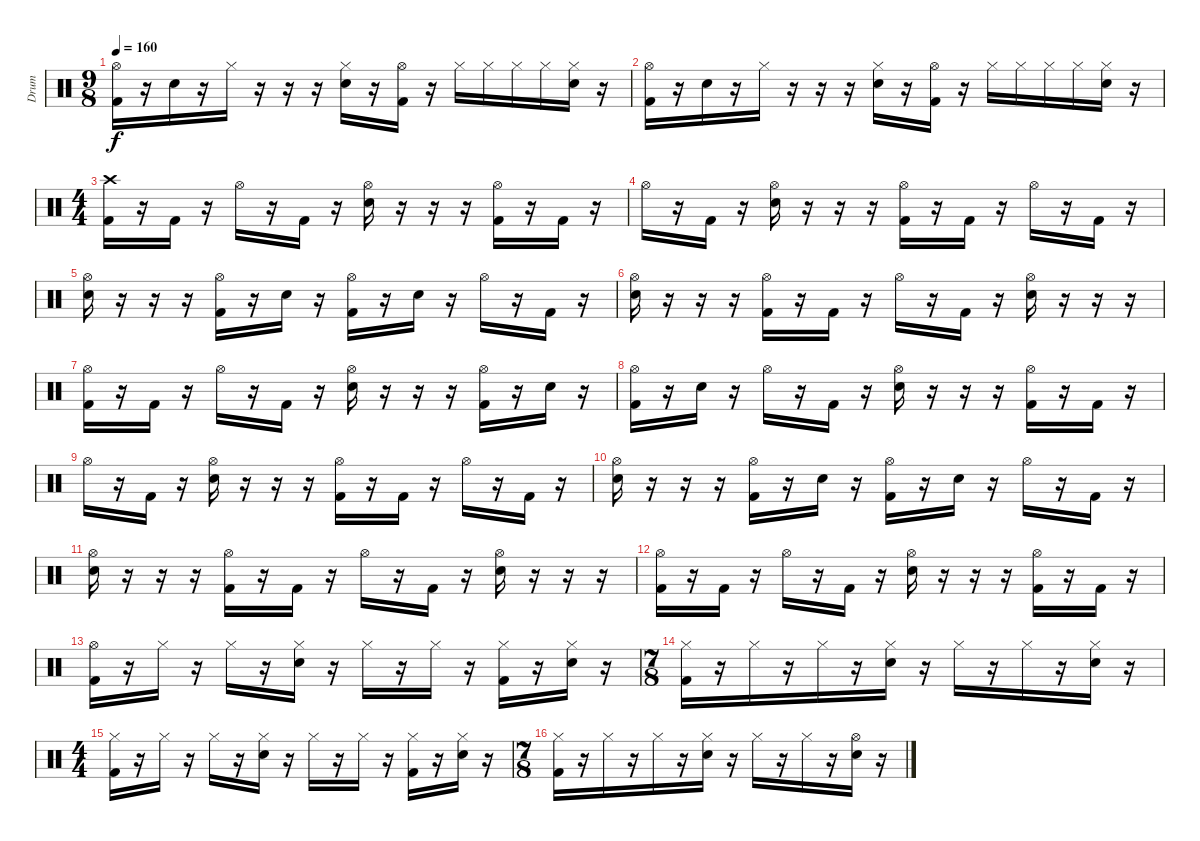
\track ("Drum" "Drum") {instrument percussion}
\staff {score}
\articulation defaults
\ts (9 8)
\tempo 160
\clef neutral
\ks c
("Hi-Hat (open)" "Kick (hit) 2").16{dy f} r.16 "Snare (hit) 2".16 r.16 "Hi-Hat (closed)".16 r.16 r.16 r.16 ("Hi-Hat (closed)" "Snare (hit) 2").16 r.16 ("Hi-Hat (open)" "Kick (hit) 2").16 r.16 "Hi-Hat (closed)".16 "Hi-Hat (closed)".16 "Hi-Hat (closed)".16 "Hi-Hat (closed)".16 ("Hi-Hat (closed)" "Snare (hit) 2").16 r.16 |
("Hi-Hat (open)" "Kick (hit) 2").16 r.16 "Snare (hit) 2".16 r.16 "Hi-Hat (closed)".16 r.16 r.16 r.16 ("Hi-Hat (closed)" "Snare (hit) 2").16 r.16 ("Hi-Hat (open)" "Kick (hit) 2").16 r.16 "Hi-Hat (closed)".16 "Hi-Hat (closed)".16 "Hi-Hat (closed)".16 "Hi-Hat (closed)".16 ("Hi-Hat (closed)" "Snare (hit) 2").16 r.16 |
\ts (4 4)
("Crash high (hit)" "Kick (hit) 2").16 r.16 "Kick (hit) 2".16 r.16 "Hi-Hat (open)".16 r.16 "Kick (hit) 2".16 r.16 ("Hi-Hat (open)" "Snare (hit) 2").16 r.16 r.16 r.16 ("Hi-Hat (open)" "Kick (hit) 2").16 r.16 "Kick (hit) 2".16 r.16 |
"Hi-Hat (open)".16 r.16 "Kick (hit) 2".16 r.16 ("Hi-Hat (open)" "Snare (hit) 2").16 r.16 r.16 r.16 ("Hi-Hat (open)" "Kick (hit) 2").16 r.16 "Kick (hit) 2".16 r.16 "Hi-Hat (open)".16 r.16 "Kick (hit) 2".16 r.16 |
("Hi-Hat (open)" "Snare (hit) 2").16 r.16 r.16 r.16 ("Hi-Hat (open)" "Kick (hit) 2").16 r.16 "Snare (hit) 2".16 r.16 ("Hi-Hat (open)" "Kick (hit) 2").16 r.16 "Snare (hit) 2".16 r.16 "Hi-Hat (open)".16 r.16 "Kick (hit) 2".16 r.16 |
("Hi-Hat (open)" "Snare (hit) 2").16 r.16 r.16 r.16 ("Hi-Hat (open)" "Kick (hit) 2").16 r.16 "Kick (hit) 2".16 r.16 "Hi-Hat (open)".16 r.16 "Kick (hit) 2".16 r.16 ("Hi-Hat (open)" "Snare (hit) 2").16 r.16 r.16 r.16 |
("Hi-Hat (open)" "Kick (hit) 2").16 r.16 "Kick (hit) 2".16 r.16 "Hi-Hat (open)".16 r.16 "Kick (hit) 2".16 r.16 ("Hi-Hat (open)" "Snare (hit) 2").16 r.16 r.16 r.16 ("Hi-Hat (open)" "Kick (hit) 2").16 r.16 "Snare (hit) 2".16 r.16 |
("Hi-Hat (open)" "Kick (hit) 2").16 r.16 "Snare (hit) 2".16 r.16 "Hi-Hat (open)".16 r.16 "Kick (hit) 2".16 r.16 ("Hi-Hat (open)" "Snare (hit) 2").16 r.16 r.16 r.16 ("Hi-Hat (open)" "Kick (hit) 2").16 r.16 "Kick (hit) 2".16 r.16 |
"Hi-Hat (open)".16 r.16 "Kick (hit) 2".16 r.16 ("Hi-Hat (open)" "Snare (hit) 2").16 r.16 r.16 r.16 ("Hi-Hat (open)" "Kick (hit) 2").16 r.16 "Kick (hit) 2".16 r.16 "Hi-Hat (open)".16 r.16 "Kick (hit) 2".16 r.16 |
("Hi-Hat (open)" "Snare (hit) 2").16 r.16 r.16 r.16 ("Hi-Hat (open)" "Kick (hit) 2").16 r.16 "Snare (hit) 2".16 r.16 ("Hi-Hat (open)" "Kick (hit) 2").16 r.16 "Snare (hit) 2".16 r.16 "Hi-Hat (open)".16 r.16 "Kick (hit) 2".16 r.16 |
("Hi-Hat (open)" "Snare (hit) 2").16 r.16 r.16 r.16 ("Hi-Hat (open)" "Kick (hit) 2").16 r.16 "Kick (hit) 2".16 r.16 "Hi-Hat (open)".16 r.16 "Kick (hit) 2".16 r.16 ("Hi-Hat (open)" "Snare (hit) 2").16 r.16 r.16 r.16 |
("Hi-Hat (open)" "Kick (hit) 2").16 r.16 "Kick (hit) 2".16 r.16 "Hi-Hat (open)".16 r.16 "Kick (hit) 2".16 r.16 ("Hi-Hat (open)" "Snare (hit) 2").16 r.16 r.16 r.16 ("Hi-Hat (open)" "Kick (hit) 2").16 r.16 "Kick (hit) 2".16 r.16 |
("Hi-Hat (open)" "Kick (hit) 2").16 r.16 "Hi-Hat (closed)".16 r.16 "Hi-Hat (closed)".16 r.16 ("Hi-Hat (closed)" "Snare (hit) 2").16 r.16 "Hi-Hat (closed)".16 r.16 "Hi-Hat (closed)".16 r.16 ("Hi-Hat (closed)" "Kick (hit) 2").16 r.16 ("Hi-Hat (closed)" "Snare (hit) 2").16 r.16 |
\ts (7 8)
("Hi-Hat (closed)" "Kick (hit) 2").16 r.16 "Hi-Hat (closed)".16 r.16 "Hi-Hat (closed)".16 r.16 ("Hi-Hat (closed)" "Snare (hit) 2").16 r.16 "Hi-Hat (closed)".16 r.16 "Hi-Hat (closed)".16 r.16 ("Hi-Hat (closed)" "Snare (hit) 2").16 r.16 |
\ts (4 4)
("Hi-Hat (closed)" "Kick (hit) 2").16 r.16 "Hi-Hat (closed)".16 r.16 "Hi-Hat (closed)".16 r.16 ("Hi-Hat (closed)" "Snare (hit) 2").16 r.16 "Hi-Hat (closed)".16 r.16 "Hi-Hat (closed)".16 r.16 ("Hi-Hat (closed)" "Kick (hit) 2").16 r.16 ("Hi-Hat (closed)" "Snare (hit) 2").16 r.16 |
\ts (7 8)
("Hi-Hat (closed)" "Kick (hit) 2").16 r.16 "Hi-Hat (closed)".16 r.16 "Hi-Hat (closed)".16 r.16 ("Hi-Hat (closed)" "Snare (hit) 2").16 r.16 "Hi-Hat (closed)".16 r.16 "Hi-Hat (closed)".16 r.16 ("Hi-Hat (open)" "Snare (hit) 2").16 r.16
